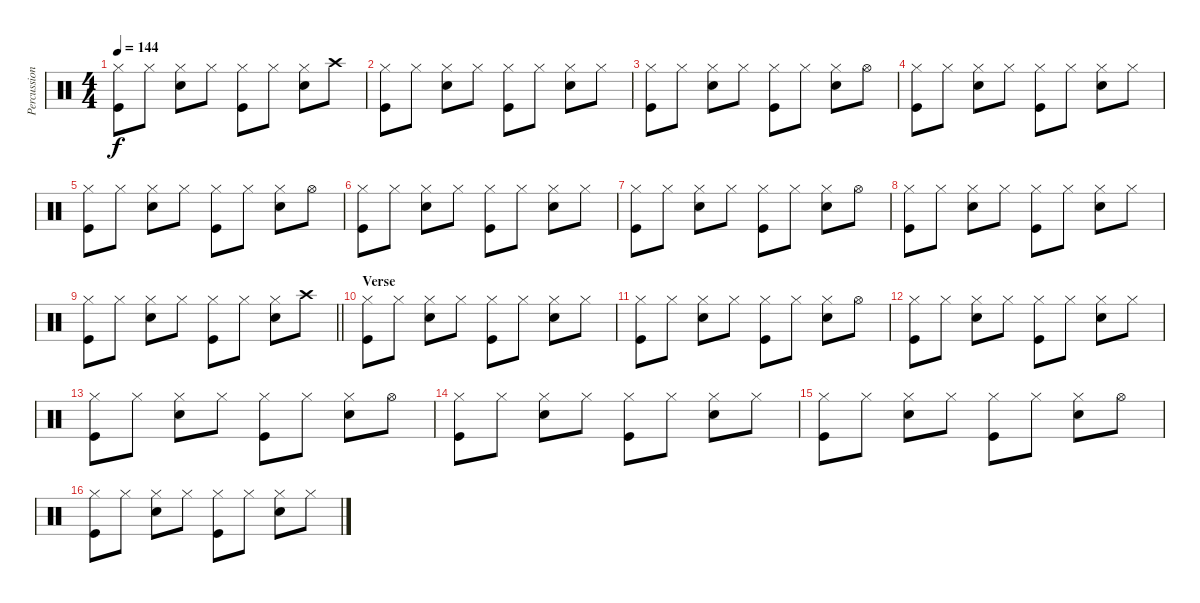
\track ("Percussion" "Percussion") {instrument percussion}
\staff {score}
\articulation defaults
\ts (4 4)
\tempo 144
\clef neutral
\ks c
("Hi-Hat (closed)" "Kick (hit)").8{dy f} "Hi-Hat (closed)".8 ("Hi-Hat (closed)" "Snare (hit) 2").8 "Hi-Hat (closed)".8 ("Hi-Hat (closed)" "Kick (hit)").8 "Hi-Hat (closed)".8 ("Hi-Hat (closed)" "Snare (hit) 2").8 "Crash high (hit)".8 |
("Hi-Hat (closed)" "Kick (hit)").8 "Hi-Hat (closed)".8 ("Hi-Hat (closed)" "Snare (hit) 2").8 "Hi-Hat (closed)".8 ("Hi-Hat (closed)" "Kick (hit)").8 "Hi-Hat (closed)".8 ("Hi-Hat (closed)" "Snare (hit) 2").8 "Hi-Hat (closed)".8 |
("Hi-Hat (closed)" "Kick (hit)").8 "Hi-Hat (closed)".8 ("Hi-Hat (closed)" "Snare (hit) 2").8 "Hi-Hat (closed)".8 ("Hi-Hat (closed)" "Kick (hit)").8 "Hi-Hat (closed)".8 ("Hi-Hat (closed)" "Snare (hit) 2").8 "Hi-Hat (open)".8 |
("Hi-Hat (closed)" "Kick (hit)").8 "Hi-Hat (closed)".8 ("Hi-Hat (closed)" "Snare (hit) 2").8 "Hi-Hat (closed)".8 ("Hi-Hat (closed)" "Kick (hit)").8 "Hi-Hat (closed)".8 ("Hi-Hat (closed)" "Snare (hit) 2").8 "Hi-Hat (closed)".8 |
("Hi-Hat (closed)" "Kick (hit)").8 "Hi-Hat (closed)".8 ("Hi-Hat (closed)" "Snare (hit) 2").8 "Hi-Hat (closed)".8 ("Hi-Hat (closed)" "Kick (hit)").8 "Hi-Hat (closed)".8 ("Hi-Hat (closed)" "Snare (hit) 2").8 "Hi-Hat (open)".8 |
("Hi-Hat (closed)" "Kick (hit)").8 "Hi-Hat (closed)".8 ("Hi-Hat (closed)" "Snare (hit) 2").8 "Hi-Hat (closed)".8 ("Hi-Hat (closed)" "Kick (hit)").8 "Hi-Hat (closed)".8 ("Hi-Hat (closed)" "Snare (hit) 2").8 "Hi-Hat (closed)".8 |
("Hi-Hat (closed)" "Kick (hit)").8 "Hi-Hat (closed)".8 ("Hi-Hat (closed)" "Snare (hit) 2").8 "Hi-Hat (closed)".8 ("Hi-Hat (closed)" "Kick (hit)").8 "Hi-Hat (closed)".8 ("Hi-Hat (closed)" "Snare (hit) 2").8 "Hi-Hat (open)".8 |
("Hi-Hat (closed)" "Kick (hit)").8 "Hi-Hat (closed)".8 ("Hi-Hat (closed)" "Snare (hit) 2").8 "Hi-Hat (closed)".8 ("Hi-Hat (closed)" "Kick (hit)").8 "Hi-Hat (closed)".8 ("Hi-Hat (closed)" "Snare (hit) 2").8 "Hi-Hat (closed)".8 |
\barLineRight lightlight
("Hi-Hat (closed)" "Kick (hit)").8 "Hi-Hat (closed)".8 ("Hi-Hat (closed)" "Snare (hit) 2").8 "Hi-Hat (closed)".8 ("Hi-Hat (closed)" "Kick (hit)").8 "Hi-Hat (closed)".8 ("Hi-Hat (closed)" "Snare (hit) 2").8 "Crash high (hit)".8 |
\section ("" "Verse")
("Hi-Hat (closed)" "Kick (hit)").8 "Hi-Hat (closed)".8 ("Hi-Hat (closed)" "Snare (hit) 2").8 "Hi-Hat (closed)".8 ("Hi-Hat (closed)" "Kick (hit)").8 "Hi-Hat (closed)".8 ("Hi-Hat (closed)" "Snare (hit) 2").8 "Hi-Hat (closed)".8 |
("Hi-Hat (closed)" "Kick (hit)").8 "Hi-Hat (closed)".8 ("Hi-Hat (closed)" "Snare (hit) 2").8 "Hi-Hat (closed)".8 ("Hi-Hat (closed)" "Kick (hit)").8 "Hi-Hat (closed)".8 ("Hi-Hat (closed)" "Snare (hit) 2").8 "Hi-Hat (open)".8 |
("Hi-Hat (closed)" "Kick (hit)").8 "Hi-Hat (closed)".8 ("Hi-Hat (closed)" "Snare (hit) 2").8 "Hi-Hat (closed)".8 ("Hi-Hat (closed)" "Kick (hit)").8 "Hi-Hat (closed)".8 ("Hi-Hat (closed)" "Snare (hit) 2").8 "Hi-Hat (closed)".8 |
("Hi-Hat (closed)" "Kick (hit)").8 "Hi-Hat (closed)".8 ("Hi-Hat (closed)" "Snare (hit) 2").8 "Hi-Hat (closed)".8 ("Hi-Hat (closed)" "Kick (hit)").8 "Hi-Hat (closed)".8 ("Hi-Hat (closed)" "Snare (hit) 2").8 "Hi-Hat (open)".8 |
("Hi-Hat (closed)" "Kick (hit)").8 "Hi-Hat (closed)".8 ("Hi-Hat (closed)" "Snare (hit) 2").8 "Hi-Hat (closed)".8 ("Hi-Hat (closed)" "Kick (hit)").8 "Hi-Hat (closed)".8 ("Hi-Hat (closed)" "Snare (hit) 2").8 "Hi-Hat (closed)".8 |
("Hi-Hat (closed)" "Kick (hit)").8 "Hi-Hat (closed)".8 ("Hi-Hat (closed)" "Snare (hit) 2").8 "Hi-Hat (closed)".8 ("Hi-Hat (closed)" "Kick (hit)").8 "Hi-Hat (closed)".8 ("Hi-Hat (closed)" "Snare (hit) 2").8 "Hi-Hat (open)".8 |
("Hi-Hat (closed)" "Kick (hit)").8 "Hi-Hat (closed)".8 ("Hi-Hat (closed)" "Snare (hit) 2").8 "Hi-Hat (closed)".8 ("Hi-Hat (closed)" "Kick (hit)").8 "Hi-Hat (closed)".8 ("Hi-Hat (closed)" "Snare (hit) 2").8 "Hi-Hat (closed)".8
